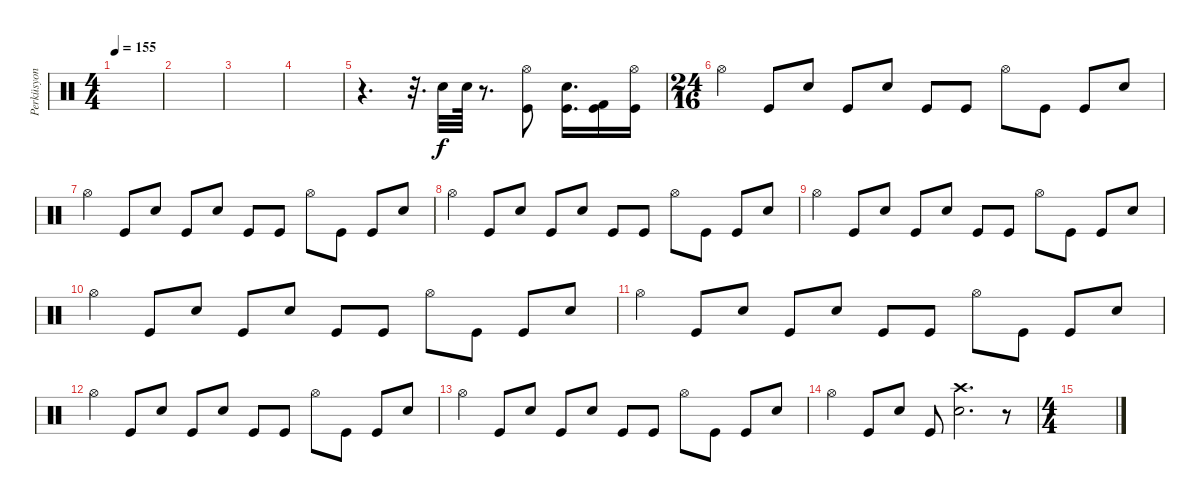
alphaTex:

\track ("Perküsyon" "Perküsyon") {instrument percussion}
\staff {score}
\articulation defaults
\ts (4 4)
\tempo 155
\clef neutral
\ks c
|
|
|
|
r.4{d} r.32{d} "Electric Snare (hit)".32 "Electric Snare (hit)".64 r.8{d} ("Hi-Hat (open)" "Kick (hit)").8 ("Electric Snare (hit)" "Kick (hit)").16{d} ("Kick (hit)" "Kick (hit) 2").16 ("Hi-Hat (open)" "Kick (hit)").16 |
\ts (24 16)
"Hi-Hat (open)".4 "Kick (hit)".8 "Electric Snare (hit)".8 "Kick (hit)".8 "Electric Snare (hit)".8 "Kick (hit)".8 "Kick (hit)".8 "Hi-Hat (open)".8 "Kick (hit)".8 "Kick (hit)".8 "Electric Snare (hit)".8 |
"Hi-Hat (open)".4 "Kick (hit)".8 "Electric Snare (hit)".8 "Kick (hit)".8 "Electric Snare (hit)".8 "Kick (hit)".8 "Kick (hit)".8 "Hi-Hat (open)".8 "Kick (hit)".8 "Kick (hit)".8 "Electric Snare (hit)".8 |
"Hi-Hat (open)".4 "Kick (hit)".8 "Electric Snare (hit)".8 "Kick (hit)".8 "Electric Snare (hit)".8 "Kick (hit)".8 "Kick (hit)".8 "Hi-Hat (open)".8 "Kick (hit)".8 "Kick (hit)".8 "Electric Snare (hit)".8 |
"Hi-Hat (open)".4 "Kick (hit)".8 "Electric Snare (hit)".8 "Kick (hit)".8 "Electric Snare (hit)".8 "Kick (hit)".8 "Kick (hit)".8 "Hi-Hat (open)".8 "Kick (hit)".8 "Kick (hit)".8 "Electric Snare (hit)".8 |
"Hi-Hat (open)".4 "Kick (hit)".8 "Electric Snare (hit)".8 "Kick (hit)".8 "Electric Snare (hit)".8 "Kick (hit)".8 "Kick (hit)".8 "Hi-Hat (open)".8 "Kick (hit)".8 "Kick (hit)".8 "Electric Snare (hit)".8 |
"Hi-Hat (open)".4 "Kick (hit)".8 "Electric Snare (hit)".8 "Kick (hit)".8 "Electric Snare (hit)".8 "Kick (hit)".8 "Kick (hit)".8 "Hi-Hat (open)".8 "Kick (hit)".8 "Kick (hit)".8 "Electric Snare (hit)".8 |
"Hi-Hat (open)".4 "Kick (hit)".8 "Electric Snare (hit)".8 "Kick (hit)".8 "Electric Snare (hit)".8 "Kick (hit)".8 "Kick (hit)".8 "Hi-Hat (open)".8 "Kick (hit)".8 "Kick (hit)".8 "Electric Snare (hit)".8 |
"Hi-Hat (open)".4 "Kick (hit)".8 "Electric Snare (hit)".8 "Kick (hit)".8 "Electric Snare (hit)".8 "Kick (hit)".8 "Kick (hit)".8 "Hi-Hat (open)".8 "Kick (hit)".8 "Kick (hit)".8 "Electric Snare (hit)".8 |
"Hi-Hat (open)".4 "Kick (hit)".8 "Electric Snare (hit)".8 "Kick (hit)".8 ("Electric Snare (hit)" "Crash high (hit)").2{d} r.8 |
\ts (4 4)
